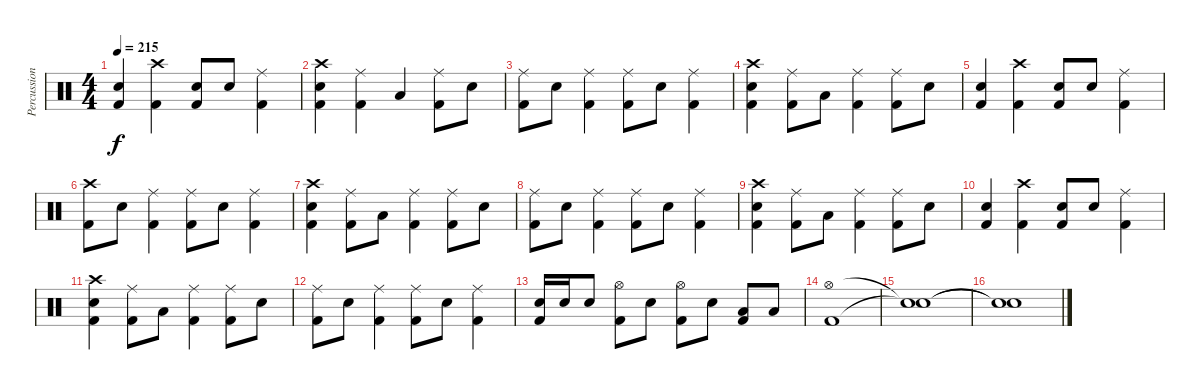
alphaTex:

\track ("Percussion" "Percussion") {instrument percussion}
\staff {score}
\articulation defaults
\ts (4 4)
\tempo 215
\clef neutral
\ks aminor
("Snare (hit) 2" "Kick (hit) 2").4{dy f} ("Crash high (hit)" "Kick (hit) 2").4 ("Snare (hit) 2" "Kick (hit) 2").8 "Snare (hit) 2".8 ("Ride (middle)" "Kick (hit) 2").4 |
("Crash high (hit)" "Snare (hit) 2" "Kick (hit) 2").4 ("Ride (middle)" "Kick (hit) 2").4 "Low Tom (hit)".4 ("Ride (middle)" "Kick (hit) 2").8 "Snare (hit) 2".8 |
("Ride (middle)" "Kick (hit) 2").8 "Snare (hit) 2".8 ("Ride (middle)" "Kick (hit) 2").4 ("Ride (middle)" "Kick (hit) 2").8 "Snare (hit) 2".8 ("Ride (middle)" "Kick (hit) 2").4 |
("Crash high (hit)" "Snare (hit) 2" "Kick (hit) 2").4 ("Ride (middle)" "Kick (hit) 2").8 "Low Tom (hit)".8 ("Ride (middle)" "Kick (hit) 2").4 ("Ride (middle)" "Kick (hit) 2").8 "Snare (hit) 2".8 |
("Snare (hit) 2" "Kick (hit) 2").4 ("Crash high (hit)" "Kick (hit) 2").4 ("Snare (hit) 2" "Kick (hit) 2").8 "Snare (hit) 2".8 ("Ride (middle)" "Kick (hit) 2").4 |
("Kick (hit) 2" "Crash high (hit)").8 "Snare (hit) 2".8 ("Ride (middle)" "Kick (hit) 2").4 ("Ride (middle)" "Kick (hit) 2").8 "Snare (hit) 2".8 ("Ride (middle)" "Kick (hit) 2").4 |
("Crash high (hit)" "Snare (hit) 2" "Kick (hit) 2").4 ("Ride (middle)" "Kick (hit) 2").8 "Low Tom (hit)".8 ("Ride (middle)" "Kick (hit) 2").4 ("Ride (middle)" "Kick (hit) 2").8 "Snare (hit) 2".8 |
("Ride (middle)" "Kick (hit) 2").8 "Snare (hit) 2".8 ("Ride (middle)" "Kick (hit) 2").4 ("Ride (middle)" "Kick (hit) 2").8 "Snare (hit) 2".8 ("Ride (middle)" "Kick (hit) 2").4 |
("Crash high (hit)" "Snare (hit) 2" "Kick (hit) 2").4 ("Ride (middle)" "Kick (hit) 2").8 "Low Tom (hit)".8 ("Ride (middle)" "Kick (hit) 2").4 ("Ride (middle)" "Kick (hit) 2").8 "Snare (hit) 2".8 |
("Snare (hit) 2" "Kick (hit) 2").4 ("Crash high (hit)" "Kick (hit) 2").4 ("Snare (hit) 2" "Kick (hit) 2").8 "Snare (hit) 2".8 ("Ride (middle)" "Kick (hit) 2").4 |
("Crash high (hit)" "Kick (hit) 2" "Snare (hit) 2").4 ("Ride (middle)" "Kick (hit) 2").8 "Low Tom (hit)".8 ("Ride (middle)" "Kick (hit) 2").4 ("Ride (middle)" "Kick (hit) 2").8 "Snare (hit) 2".8 |
("Ride (middle)" "Kick (hit) 2").8 "Snare (hit) 2".8 ("Ride (middle)" "Kick (hit) 2").4 ("Ride (middle)" "Kick (hit) 2").8 "Snare (hit) 2".8 ("Ride (middle)" "Kick (hit) 2").4 |
("Snare (hit) 2" "Kick (hit) 2").16 "Snare (hit) 2".16 "Snare (hit) 2".8 ("Hi-Hat (open)" "Kick (hit) 2").8 "Snare (hit) 2".8 ("Hi-Hat (open)" "Kick (hit) 2").8 "Snare (hit) 2".8 ("Low Tom (hit)" "Kick (hit) 2").8 "Low Tom (hit)".8 |
("Hi-Hat (open)" "Kick (hit) 2").1 |
("Snare (hit)"{t} "Snare (hit)"{t}).1 |
("Snare (hit)"{t} "Snare (hit)"{t}).1
